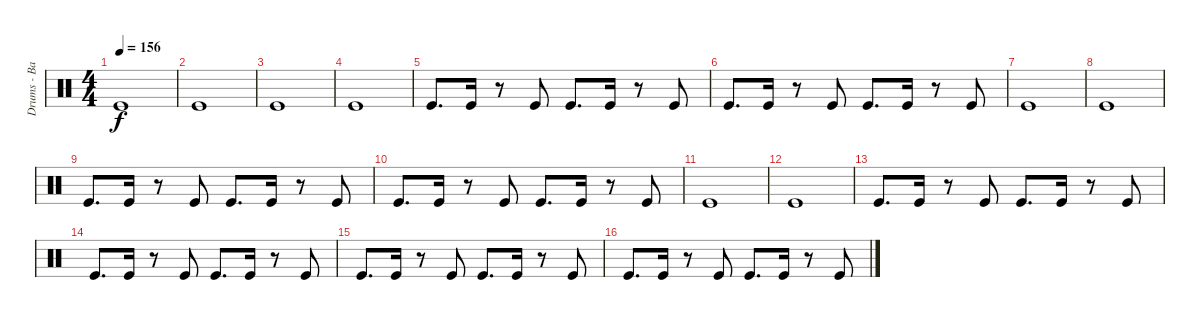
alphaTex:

\track ("Drums - Bass Drums" "Drums - Ba") {instrument percussion}
\staff {score}
\articulation defaults
\ts (4 4)
\tempo 156
\clef neutral
\ks c "Kick (hit)".1{dy f}
|
"Kick (hit)".1 |
"Kick (hit)".1 |
"Kick (hit)".1 |
"Kick (hit)".8{d} "Kick (hit)".16 r.8 "Kick (hit)".8 "Kick (hit)".8{d} "Kick (hit)".16 r.8 "Kick (hit)".8 |
"Kick (hit)".8{d} "Kick (hit)".16 r.8 "Kick (hit)".8 "Kick (hit)".8{d} "Kick (hit)".16 r.8 "Kick (hit)".8 |
"Kick (hit)".1 |
"Kick (hit)".1 |
"Kick (hit)".8{d} "Kick (hit)".16 r.8 "Kick (hit)".8 "Kick (hit)".8{d} "Kick (hit)".16 r.8 "Kick (hit)".8 |
"Kick (hit)".8{d} "Kick (hit)".16 r.8 "Kick (hit)".8 "Kick (hit)".8{d} "Kick (hit)".16 r.8 "Kick (hit)".8 |
"Kick (hit)".1 |
"Kick (hit)".1 |
"Kick (hit)".8{d} "Kick (hit)".16 r.8 "Kick (hit)".8 "Kick (hit)".8{d} "Kick (hit)".16 r.8 "Kick (hit)".8 |
"Kick (hit)".8{d} "Kick (hit)".16 r.8 "Kick (hit)".8 "Kick (hit)".8{d} "Kick (hit)".16 r.8 "Kick (hit)".8 |
"Kick (hit)".8{d} "Kick (hit)".16 r.8 "Kick (hit)".8 "Kick (hit)".8{d} "Kick (hit)".16 r.8 "Kick (hit)".8 |
"Kick (hit)".8{d} "Kick (hit)".16 r.8 "Kick (hit)".8 "Kick (hit)".8{d} "Kick (hit)".16 r.8 "Kick (hit)".8
